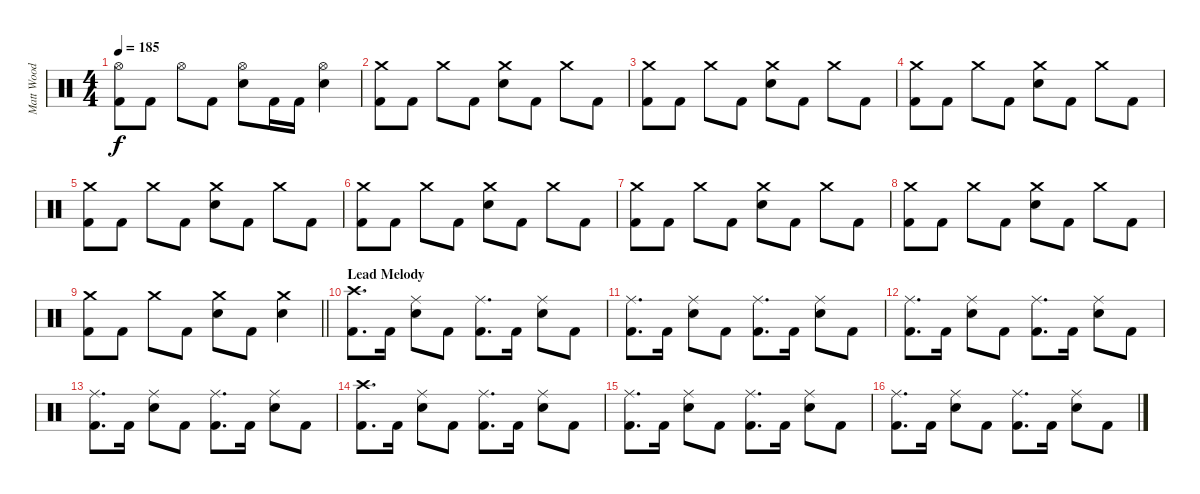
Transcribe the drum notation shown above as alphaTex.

\track ("Matt Wood" "Matt Wood") {instrument percussion}
\staff {score}
\articulation defaults
\ts (4 4)
\tempo 185
\clef neutral
\ks c
("Hi-Hat (open)" "Kick (hit) 2").8{dy f} "Kick (hit) 2".8 "Hi-Hat (open)".8 "Kick (hit) 2".8 ("Hi-Hat (open)" "Snare (hit) 2").8 "Kick (hit) 2".16 "Kick (hit) 2".16 ("Hi-Hat (open)" "Snare (hit) 2").4 |
("Crash medium (hit)" "Kick (hit) 2").8 "Kick (hit) 2".8 "Crash medium (hit)".8 "Kick (hit) 2".8 ("Crash medium (hit)" "Snare (hit) 2").8 "Kick (hit) 2".8 "Crash medium (hit)".8 "Kick (hit) 2".8 |
("Crash medium (hit)" "Kick (hit) 2").8 "Kick (hit) 2".8 "Crash medium (hit)".8 "Kick (hit) 2".8 ("Crash medium (hit)" "Snare (hit) 2").8 "Kick (hit) 2".8 "Crash medium (hit)".8 "Kick (hit) 2".8 |
("Crash medium (hit)" "Kick (hit) 2").8 "Kick (hit) 2".8 "Crash medium (hit)".8 "Kick (hit) 2".8 ("Crash medium (hit)" "Snare (hit) 2").8 "Kick (hit) 2".8 "Crash medium (hit)".8 "Kick (hit) 2".8 |
("Crash medium (hit)" "Kick (hit) 2").8 "Kick (hit) 2".8 "Crash medium (hit)".8 "Kick (hit) 2".8 ("Crash medium (hit)" "Snare (hit) 2").8 "Kick (hit) 2".8 "Crash medium (hit)".8 "Kick (hit) 2".8 |
("Crash medium (hit)" "Kick (hit) 2").8 "Kick (hit) 2".8 "Crash medium (hit)".8 "Kick (hit) 2".8 ("Crash medium (hit)" "Snare (hit) 2").8 "Kick (hit) 2".8 "Crash medium (hit)".8 "Kick (hit) 2".8 |
("Crash medium (hit)" "Kick (hit) 2").8 "Kick (hit) 2".8 "Crash medium (hit)".8 "Kick (hit) 2".8 ("Crash medium (hit)" "Snare (hit) 2").8 "Kick (hit) 2".8 "Crash medium (hit)".8 "Kick (hit) 2".8 |
("Crash medium (hit)" "Kick (hit) 2").8 "Kick (hit) 2".8 "Crash medium (hit)".8 "Kick (hit) 2".8 ("Crash medium (hit)" "Snare (hit) 2").8 "Kick (hit) 2".8 "Crash medium (hit)".8 "Kick (hit) 2".8 |
\barLineRight lightlight
("Crash medium (hit)" "Kick (hit) 2").8 "Kick (hit) 2".8 "Crash medium (hit)".8 "Kick (hit) 2".8 ("Crash medium (hit)" "Snare (hit) 2").8 "Kick (hit) 2".8 ("Crash medium (hit)" "Snare (hit) 2").4 |
\section ("" "Lead Melody")
("Crash high (hit)" "Kick (hit) 2").8{d} "Kick (hit) 2".16 ("Ride (middle)" "Snare (hit) 2").8 "Kick (hit) 2".8 ("Ride (middle)" "Kick (hit) 2").8{d} "Kick (hit) 2".16 ("Ride (middle)" "Snare (hit) 2").8 "Kick (hit) 2".8 |
("Ride (middle)" "Kick (hit) 2").8{d} "Kick (hit) 2".16 ("Ride (middle)" "Snare (hit) 2").8 "Kick (hit) 2".8 ("Ride (middle)" "Kick (hit) 2").8{d} "Kick (hit) 2".16 ("Ride (middle)" "Snare (hit) 2").8 "Kick (hit) 2".8 |
("Ride (middle)" "Kick (hit) 2").8{d} "Kick (hit) 2".16 ("Ride (middle)" "Snare (hit) 2").8 "Kick (hit) 2".8 ("Ride (middle)" "Kick (hit) 2").8{d} "Kick (hit) 2".16 ("Ride (middle)" "Snare (hit) 2").8 "Kick (hit) 2".8 |
("Ride (middle)" "Kick (hit) 2").8{d} "Kick (hit) 2".16 ("Ride (middle)" "Snare (hit) 2").8 "Kick (hit) 2".8 ("Ride (middle)" "Kick (hit) 2").8{d} "Kick (hit) 2".16 ("Ride (middle)" "Snare (hit) 2").8 "Kick (hit) 2".8 |
("Crash high (hit)" "Kick (hit) 2").8{d} "Kick (hit) 2".16 ("Ride (middle)" "Snare (hit) 2").8 "Kick (hit) 2".8 ("Ride (middle)" "Kick (hit) 2").8{d} "Kick (hit) 2".16 ("Ride (middle)" "Snare (hit) 2").8 "Kick (hit) 2".8 |
("Ride (middle)" "Kick (hit) 2").8{d} "Kick (hit) 2".16 ("Ride (middle)" "Snare (hit) 2").8 "Kick (hit) 2".8 ("Ride (middle)" "Kick (hit) 2").8{d} "Kick (hit) 2".16 ("Ride (middle)" "Snare (hit) 2").8 "Kick (hit) 2".8 |
("Ride (middle)" "Kick (hit) 2").8{d} "Kick (hit) 2".16 ("Ride (middle)" "Snare (hit) 2").8 "Kick (hit) 2".8 ("Ride (middle)" "Kick (hit) 2").8{d} "Kick (hit) 2".16 ("Ride (middle)" "Snare (hit) 2").8 "Kick (hit) 2".8
